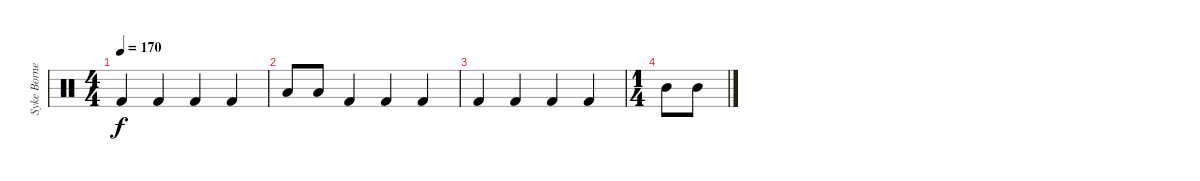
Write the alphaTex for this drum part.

\track ("Syke Bornetto (Drums)" "Syke Borne") {instrument percussion}
\staff {score}
\articulation defaults
\ts (4 4)
\tempo 170
\clef neutral
\ks c "Kick (hit) 2".4{dy f} "Kick (hit) 2".4 "Kick (hit) 2".4 "Kick (hit) 2".4
|
"Low Tom (hit)".8 "Low Tom (hit)".8 "Kick (hit) 2".4 "Kick (hit) 2".4 "Kick (hit) 2".4 |
"Kick (hit) 2".4 "Kick (hit) 2".4 "Kick (hit) 2".4 "Kick (hit) 2".4 |
\ts (1 4)
"Mid Tom (hit)".8 "Mid Tom (hit)".8
